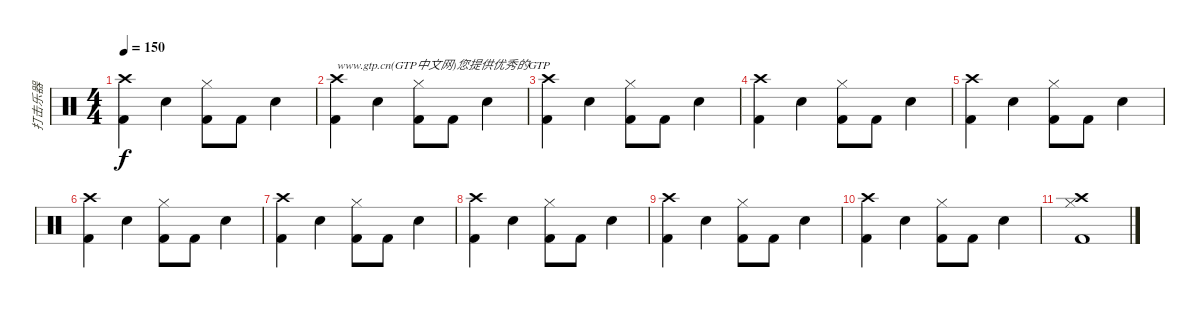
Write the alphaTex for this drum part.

\track ("打击乐器" "打击乐器") {instrument percussion}
\staff {score}
\articulation defaults
\ts (4 4)
\tempo 150
\clef neutral
\ks c
("Kick (hit) 2" "Crash high (hit)").4{dy f} "Snare (hit) 2".4 ("Kick (hit) 2" "Hi-Hat (closed)").8 "Kick (hit) 2".8 "Snare (hit) 2".4 |
("Kick (hit) 2" "Crash high (hit)").4{txt "www.gtp.cn(GTP中文网)您提供优秀的GTP"} "Snare (hit) 2".4 ("Kick (hit) 2" "Hi-Hat (closed)").8 "Kick (hit) 2".8 "Snare (hit) 2".4 |
("Kick (hit) 2" "Crash high (hit)").4 "Snare (hit) 2".4 ("Kick (hit) 2" "Hi-Hat (closed)").8 "Kick (hit) 2".8 "Snare (hit) 2".4 |
("Kick (hit) 2" "Crash high (hit)").4 "Snare (hit) 2".4 ("Kick (hit) 2" "Hi-Hat (closed)").8 "Kick (hit) 2".8 "Snare (hit) 2".4 |
("Kick (hit) 2" "Crash high (hit)").4 "Snare (hit) 2".4 ("Kick (hit) 2" "Hi-Hat (closed)").8 "Kick (hit) 2".8 "Snare (hit) 2".4 |
("Kick (hit) 2" "Crash high (hit)").4 "Snare (hit) 2".4 ("Kick (hit) 2" "Hi-Hat (closed)").8 "Kick (hit) 2".8 "Snare (hit) 2".4 |
("Kick (hit) 2" "Crash high (hit)").4 "Snare (hit) 2".4 ("Kick (hit) 2" "Hi-Hat (closed)").8 "Kick (hit) 2".8 "Snare (hit) 2".4 |
("Kick (hit) 2" "Crash high (hit)").4 "Snare (hit) 2".4 ("Kick (hit) 2" "Hi-Hat (closed)").8 "Kick (hit) 2".8 "Snare (hit) 2".4 |
("Kick (hit) 2" "Crash high (hit)").4 "Snare (hit) 2".4 ("Kick (hit) 2" "Hi-Hat (closed)").8 "Kick (hit) 2".8 "Snare (hit) 2".4 |
("Kick (hit) 2" "Crash high (hit)").4 "Snare (hit) 2".4 ("Kick (hit) 2" "Hi-Hat (closed)").8 "Kick (hit) 2".8 "Snare (hit) 2".4 |
("Kick (hit) 2" "Crash high (hit)" "Hi-Hat (closed)").1
